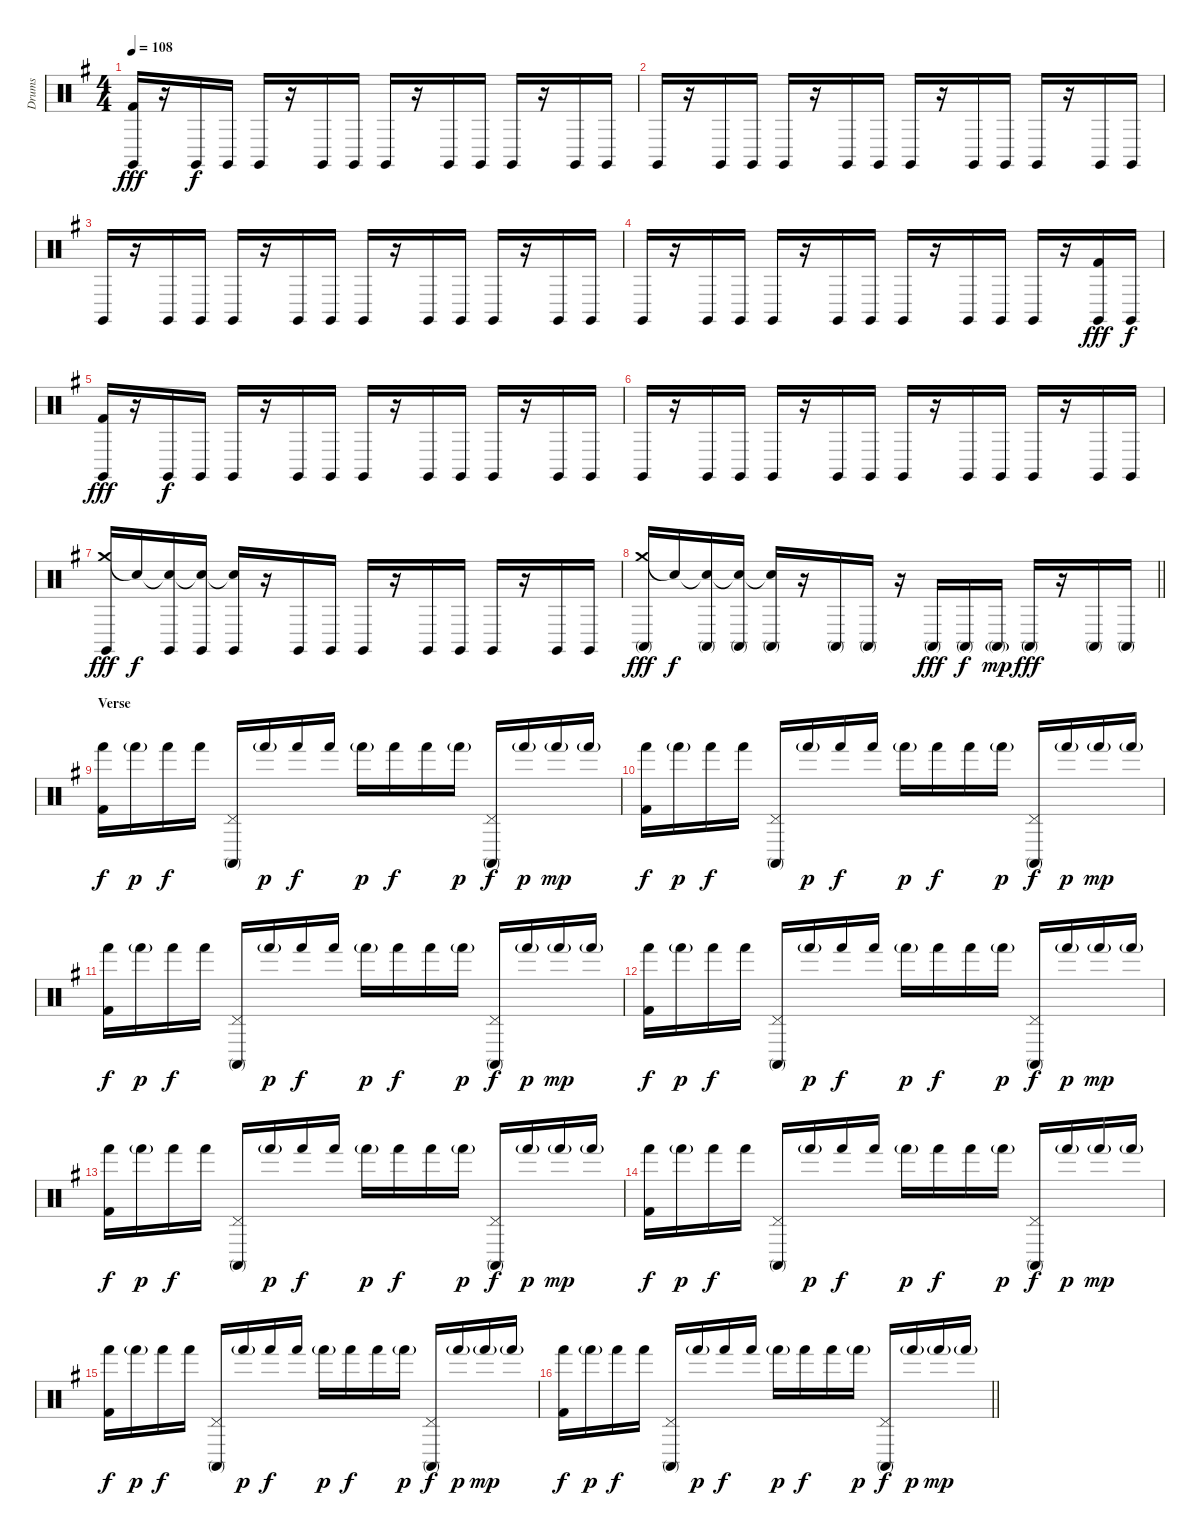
\track ("Drums" "Drums") {instrument percussion}
\staff {score}
\articulation defaults
\ts (4 4)
\tempo 108
\clef neutral
\ks eminor
("Claves (hit)" "Kick (hit) 2").16{dy fff} r.16 "Claves (hit)".16{dy f} "Claves (hit)".16 "Claves (hit)".16 r.16 "Claves (hit)".16 "Claves (hit)".16 "Claves (hit)".16 r.16 "Claves (hit)".16 "Claves (hit)".16 "Claves (hit)".16 r.16 "Claves (hit)".16 "Claves (hit)".16 |
"Claves (hit)".16 r.16 "Claves (hit)".16 "Claves (hit)".16 "Claves (hit)".16 r.16 "Claves (hit)".16 "Claves (hit)".16 "Claves (hit)".16 r.16 "Claves (hit)".16 "Claves (hit)".16 "Claves (hit)".16 r.16 "Claves (hit)".16 "Claves (hit)".16 |
"Claves (hit)".16 r.16 "Claves (hit)".16 "Claves (hit)".16 "Claves (hit)".16 r.16 "Claves (hit)".16 "Claves (hit)".16 "Claves (hit)".16 r.16 "Claves (hit)".16 "Claves (hit)".16 "Claves (hit)".16 r.16 "Claves (hit)".16 "Claves (hit)".16 |
"Claves (hit)".16 r.16 "Claves (hit)".16 "Claves (hit)".16 "Claves (hit)".16 r.16 "Claves (hit)".16 "Claves (hit)".16 "Claves (hit)".16 r.16 "Claves (hit)".16 "Claves (hit)".16 "Claves (hit)".16 r.16 ("Claves (hit)" "Kick (hit) 2").16{dy fff} "Claves (hit)".16{dy f} |
("Claves (hit)" "Kick (hit) 2").16{dy fff} r.16 "Claves (hit)".16{dy f} "Claves (hit)".16 "Claves (hit)".16 r.16 "Claves (hit)".16 "Claves (hit)".16 "Claves (hit)".16 r.16 "Claves (hit)".16 "Claves (hit)".16 "Claves (hit)".16 r.16 "Claves (hit)".16 "Claves (hit)".16 |
"Claves (hit)".16 r.16 "Claves (hit)".16 "Claves (hit)".16 "Claves (hit)".16 r.16 "Claves (hit)".16 "Claves (hit)".16 "Claves (hit)".16 r.16 "Claves (hit)".16 "Claves (hit)".16 "Claves (hit)".16 r.16 "Claves (hit)".16 "Claves (hit)".16 |
("Crash medium (hit)" "Claves (hit)").16{dy fff} "Snare (hit)"{t}.16{dy f} ("Snare (hit)"{t} "Claves (hit)").16 ("Snare (hit)"{t} "Claves (hit)").16 ("Snare (hit)"{t} "Claves (hit)").16 r.16 "Claves (hit)".16 "Claves (hit)".16 "Claves (hit)".16 r.16 "Claves (hit)".16 "Claves (hit)".16 "Claves (hit)".16 r.16 "Claves (hit)".16 "Claves (hit)".16 |
\barLineRight lightlight
("Crash medium (hit)" "Conga high (mute)").16{dy fff} "Snare (hit)"{t}.16{dy f} ("Snare (hit)"{t} "Conga high (mute)").16 ("Snare (hit)"{t} "Conga high (mute)").16 ("Snare (hit)"{t} "Conga high (mute)").16 r.16 "Conga high (mute)".16 "Conga high (mute)".16 r.16 "Conga high (mute)".16{dy fff} "Conga high (mute)".16{dy f} "Conga high (mute)"{g}.16{dy mp} "Conga high (mute)".16{dy fff} r.16 "Conga high (mute)".16 "Conga high (mute)".16 |
\section ("" "Verse")
("Hand (hit)" "Kick (hit) 2").16{dy f} "Hand (hit)"{g}.16{dy p} "Hand (hit)".16{dy f} "Hand (hit)".16 ("Pedal Hi-Hat (hit)" "Conga high (mute)").16 "Hand (hit)"{g}.16{dy p} "Hand (hit)".16{dy f} "Hand (hit)".16 "Hand (hit)"{g}.16{dy p} "Hand (hit)".16{dy f} "Hand (hit)".16 "Hand (hit)"{g}.16{dy p} ("Pedal Hi-Hat (hit)" "Conga high (mute)").16{dy f} "Hand (hit)"{g}.16{dy p} "Hand (hit)"{g}.16{dy mp} "Hand (hit)"{g}.16 |
("Hand (hit)" "Kick (hit) 2").16{dy f} "Hand (hit)"{g}.16{dy p} "Hand (hit)".16{dy f} "Hand (hit)".16 ("Pedal Hi-Hat (hit)" "Conga high (mute)").16 "Hand (hit)"{g}.16{dy p} "Hand (hit)".16{dy f} "Hand (hit)".16 "Hand (hit)"{g}.16{dy p} "Hand (hit)".16{dy f} "Hand (hit)".16 "Hand (hit)"{g}.16{dy p} ("Pedal Hi-Hat (hit)" "Conga high (mute)").16{dy f} "Hand (hit)"{g}.16{dy p} "Hand (hit)"{g}.16{dy mp} "Hand (hit)"{g}.16 |
("Hand (hit)" "Kick (hit) 2").16{dy f} "Hand (hit)"{g}.16{dy p} "Hand (hit)".16{dy f} "Hand (hit)".16 ("Pedal Hi-Hat (hit)" "Conga high (mute)").16 "Hand (hit)"{g}.16{dy p} "Hand (hit)".16{dy f} "Hand (hit)".16 "Hand (hit)"{g}.16{dy p} "Hand (hit)".16{dy f} "Hand (hit)".16 "Hand (hit)"{g}.16{dy p} ("Pedal Hi-Hat (hit)" "Conga high (mute)").16{dy f} "Hand (hit)"{g}.16{dy p} "Hand (hit)"{g}.16{dy mp} "Hand (hit)"{g}.16 |
("Hand (hit)" "Kick (hit) 2").16{dy f} "Hand (hit)"{g}.16{dy p} "Hand (hit)".16{dy f} "Hand (hit)".16 ("Pedal Hi-Hat (hit)" "Conga high (mute)").16 "Hand (hit)"{g}.16{dy p} "Hand (hit)".16{dy f} "Hand (hit)".16 "Hand (hit)"{g}.16{dy p} "Hand (hit)".16{dy f} "Hand (hit)".16 "Hand (hit)"{g}.16{dy p} ("Pedal Hi-Hat (hit)" "Conga high (mute)").16{dy f} "Hand (hit)"{g}.16{dy p} "Hand (hit)"{g}.16{dy mp} "Hand (hit)"{g}.16 |
("Hand (hit)" "Kick (hit) 2").16{dy f} "Hand (hit)"{g}.16{dy p} "Hand (hit)".16{dy f} "Hand (hit)".16 ("Pedal Hi-Hat (hit)" "Conga high (mute)").16 "Hand (hit)"{g}.16{dy p} "Hand (hit)".16{dy f} "Hand (hit)".16 "Hand (hit)"{g}.16{dy p} "Hand (hit)".16{dy f} "Hand (hit)".16 "Hand (hit)"{g}.16{dy p} ("Pedal Hi-Hat (hit)" "Conga high (mute)").16{dy f} "Hand (hit)"{g}.16{dy p} "Hand (hit)"{g}.16{dy mp} "Hand (hit)"{g}.16 |
("Hand (hit)" "Kick (hit) 2").16{dy f} "Hand (hit)"{g}.16{dy p} "Hand (hit)".16{dy f} "Hand (hit)".16 ("Pedal Hi-Hat (hit)" "Conga high (mute)").16 "Hand (hit)"{g}.16{dy p} "Hand (hit)".16{dy f} "Hand (hit)".16 "Hand (hit)"{g}.16{dy p} "Hand (hit)".16{dy f} "Hand (hit)".16 "Hand (hit)"{g}.16{dy p} ("Pedal Hi-Hat (hit)" "Conga high (mute)").16{dy f} "Hand (hit)"{g}.16{dy p} "Hand (hit)"{g}.16{dy mp} "Hand (hit)"{g}.16 |
("Hand (hit)" "Kick (hit) 2").16{dy f} "Hand (hit)"{g}.16{dy p} "Hand (hit)".16{dy f} "Hand (hit)".16 ("Pedal Hi-Hat (hit)" "Conga high (mute)").16 "Hand (hit)"{g}.16{dy p} "Hand (hit)".16{dy f} "Hand (hit)".16 "Hand (hit)"{g}.16{dy p} "Hand (hit)".16{dy f} "Hand (hit)".16 "Hand (hit)"{g}.16{dy p} ("Pedal Hi-Hat (hit)" "Conga high (mute)").16{dy f} "Hand (hit)"{g}.16{dy p} "Hand (hit)"{g}.16{dy mp} "Hand (hit)"{g}.16 |
\barLineRight lightlight
("Hand (hit)" "Kick (hit) 2").16{dy f} "Hand (hit)"{g}.16{dy p} "Hand (hit)".16{dy f} "Hand (hit)".16 ("Pedal Hi-Hat (hit)" "Conga high (mute)").16 "Hand (hit)"{g}.16{dy p} "Hand (hit)".16{dy f} "Hand (hit)".16 "Hand (hit)"{g}.16{dy p} "Hand (hit)".16{dy f} "Hand (hit)".16 "Hand (hit)"{g}.16{dy p} ("Pedal Hi-Hat (hit)" "Conga high (mute)").16{dy f} "Hand (hit)"{g}.16{dy p} "Hand (hit)"{g}.16{dy mp} "Hand (hit)"{g}.16
